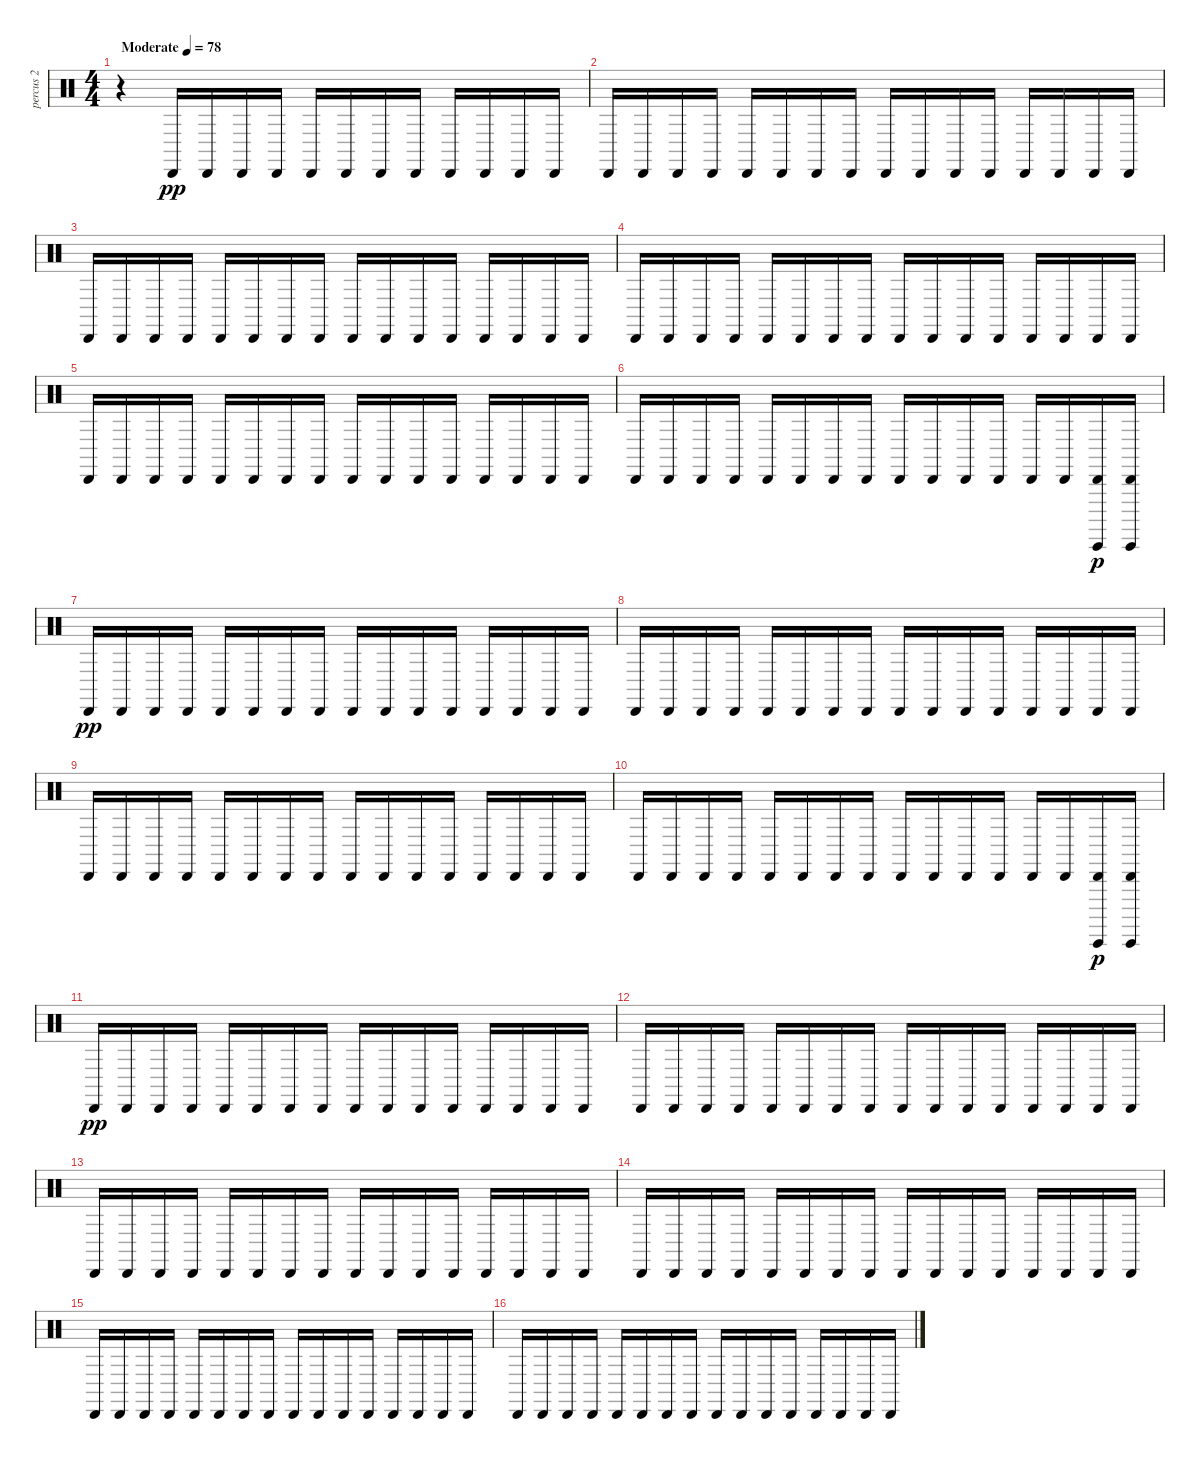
\track ("percus 2" "percus 2") {instrument percussion}
\staff {score}
\articulation defaults
\ts (4 4)
\tempo (78 "Moderate")
\clef neutral
\ks c
r.4{dy pp} "Cabasa (hit)".16 "Cabasa (hit)".16 "Cabasa (hit)".16 "Cabasa (hit)".16 "Cabasa (hit)".16 "Cabasa (hit)".16 "Cabasa (hit)".16 "Cabasa (hit)".16 "Cabasa (hit)".16 "Cabasa (hit)".16 "Cabasa (hit)".16 "Cabasa (hit)".16 |
"Cabasa (hit)".16 "Cabasa (hit)".16 "Cabasa (hit)".16 "Cabasa (hit)".16 "Cabasa (hit)".16 "Cabasa (hit)".16 "Cabasa (hit)".16 "Cabasa (hit)".16 "Cabasa (hit)".16 "Cabasa (hit)".16 "Cabasa (hit)".16 "Cabasa (hit)".16 "Cabasa (hit)".16 "Cabasa (hit)".16 "Cabasa (hit)".16 "Cabasa (hit)".16 |
"Cabasa (hit)".16 "Cabasa (hit)".16 "Cabasa (hit)".16 "Cabasa (hit)".16 "Cabasa (hit)".16 "Cabasa (hit)".16 "Cabasa (hit)".16 "Cabasa (hit)".16 "Cabasa (hit)".16 "Cabasa (hit)".16 "Cabasa (hit)".16 "Cabasa (hit)".16 "Cabasa (hit)".16 "Cabasa (hit)".16 "Cabasa (hit)".16 "Cabasa (hit)".16 |
"Cabasa (hit)".16 "Cabasa (hit)".16 "Cabasa (hit)".16 "Cabasa (hit)".16 "Cabasa (hit)".16 "Cabasa (hit)".16 "Cabasa (hit)".16 "Cabasa (hit)".16 "Cabasa (hit)".16 "Cabasa (hit)".16 "Cabasa (hit)".16 "Cabasa (hit)".16 "Cabasa (hit)".16 "Cabasa (hit)".16 "Cabasa (hit)".16 "Cabasa (hit)".16 |
"Cabasa (hit)".16 "Cabasa (hit)".16 "Cabasa (hit)".16 "Cabasa (hit)".16 "Cabasa (hit)".16 "Cabasa (hit)".16 "Cabasa (hit)".16 "Cabasa (hit)".16 "Cabasa (hit)".16 "Cabasa (hit)".16 "Cabasa (hit)".16 "Cabasa (hit)".16 "Cabasa (hit)".16 "Cabasa (hit)".16 "Cabasa (hit)".16 "Cabasa (hit)".16 |
"Cabasa (hit)".16 "Cabasa (hit)".16 "Cabasa (hit)".16 "Cabasa (hit)".16 "Cabasa (hit)".16 "Cabasa (hit)".16 "Cabasa (hit)".16 "Cabasa (hit)".16 "Cabasa (hit)".16 "Cabasa (hit)".16 "Cabasa (hit)".16 "Cabasa (hit)".16 "Cabasa (hit)".16 "Cabasa (hit)".16 ("Cabasa (hit)" "Guiro (hit)").16{dy p} ("Cabasa (hit)" "Guiro (hit)").16 |
"Cabasa (hit)".16{dy pp} "Cabasa (hit)".16 "Cabasa (hit)".16 "Cabasa (hit)".16 "Cabasa (hit)".16 "Cabasa (hit)".16 "Cabasa (hit)".16 "Cabasa (hit)".16 "Cabasa (hit)".16 "Cabasa (hit)".16 "Cabasa (hit)".16 "Cabasa (hit)".16 "Cabasa (hit)".16 "Cabasa (hit)".16 "Cabasa (hit)".16 "Cabasa (hit)".16 |
"Cabasa (hit)".16 "Cabasa (hit)".16 "Cabasa (hit)".16 "Cabasa (hit)".16 "Cabasa (hit)".16 "Cabasa (hit)".16 "Cabasa (hit)".16 "Cabasa (hit)".16 "Cabasa (hit)".16 "Cabasa (hit)".16 "Cabasa (hit)".16 "Cabasa (hit)".16 "Cabasa (hit)".16 "Cabasa (hit)".16 "Cabasa (hit)".16 "Cabasa (hit)".16 |
"Cabasa (hit)".16 "Cabasa (hit)".16 "Cabasa (hit)".16 "Cabasa (hit)".16 "Cabasa (hit)".16 "Cabasa (hit)".16 "Cabasa (hit)".16 "Cabasa (hit)".16 "Cabasa (hit)".16 "Cabasa (hit)".16 "Cabasa (hit)".16 "Cabasa (hit)".16 "Cabasa (hit)".16 "Cabasa (hit)".16 "Cabasa (hit)".16 "Cabasa (hit)".16 |
"Cabasa (hit)".16 "Cabasa (hit)".16 "Cabasa (hit)".16 "Cabasa (hit)".16 "Cabasa (hit)".16 "Cabasa (hit)".16 "Cabasa (hit)".16 "Cabasa (hit)".16 "Cabasa (hit)".16 "Cabasa (hit)".16 "Cabasa (hit)".16 "Cabasa (hit)".16 "Cabasa (hit)".16 "Cabasa (hit)".16 ("Cabasa (hit)" "Guiro (hit)").16{dy p} ("Cabasa (hit)" "Guiro (hit)").16 |
"Cabasa (hit)".16{dy pp} "Cabasa (hit)".16 "Cabasa (hit)".16 "Cabasa (hit)".16 "Cabasa (hit)".16 "Cabasa (hit)".16 "Cabasa (hit)".16 "Cabasa (hit)".16 "Cabasa (hit)".16 "Cabasa (hit)".16 "Cabasa (hit)".16 "Cabasa (hit)".16 "Cabasa (hit)".16 "Cabasa (hit)".16 "Cabasa (hit)".16 "Cabasa (hit)".16 |
"Cabasa (hit)".16 "Cabasa (hit)".16 "Cabasa (hit)".16 "Cabasa (hit)".16 "Cabasa (hit)".16 "Cabasa (hit)".16 "Cabasa (hit)".16 "Cabasa (hit)".16 "Cabasa (hit)".16 "Cabasa (hit)".16 "Cabasa (hit)".16 "Cabasa (hit)".16 "Cabasa (hit)".16 "Cabasa (hit)".16 "Cabasa (hit)".16 "Cabasa (hit)".16 |
"Cabasa (hit)".16 "Cabasa (hit)".16 "Cabasa (hit)".16 "Cabasa (hit)".16 "Cabasa (hit)".16 "Cabasa (hit)".16 "Cabasa (hit)".16 "Cabasa (hit)".16 "Cabasa (hit)".16 "Cabasa (hit)".16 "Cabasa (hit)".16 "Cabasa (hit)".16 "Cabasa (hit)".16 "Cabasa (hit)".16 "Cabasa (hit)".16 "Cabasa (hit)".16 |
"Cabasa (hit)".16 "Cabasa (hit)".16 "Cabasa (hit)".16 "Cabasa (hit)".16 "Cabasa (hit)".16 "Cabasa (hit)".16 "Cabasa (hit)".16 "Cabasa (hit)".16 "Cabasa (hit)".16 "Cabasa (hit)".16 "Cabasa (hit)".16 "Cabasa (hit)".16 "Cabasa (hit)".16 "Cabasa (hit)".16 "Cabasa (hit)".16 "Cabasa (hit)".16 |
"Cabasa (hit)".16 "Cabasa (hit)".16 "Cabasa (hit)".16 "Cabasa (hit)".16 "Cabasa (hit)".16 "Cabasa (hit)".16 "Cabasa (hit)".16 "Cabasa (hit)".16 "Cabasa (hit)".16 "Cabasa (hit)".16 "Cabasa (hit)".16 "Cabasa (hit)".16 "Cabasa (hit)".16 "Cabasa (hit)".16 "Cabasa (hit)".16 "Cabasa (hit)".16 |
"Cabasa (hit)".16 "Cabasa (hit)".16 "Cabasa (hit)".16 "Cabasa (hit)".16 "Cabasa (hit)".16 "Cabasa (hit)".16 "Cabasa (hit)".16 "Cabasa (hit)".16 "Cabasa (hit)".16 "Cabasa (hit)".16 "Cabasa (hit)".16 "Cabasa (hit)".16 "Cabasa (hit)".16 "Cabasa (hit)".16 "Cabasa (hit)".16 "Cabasa (hit)".16
